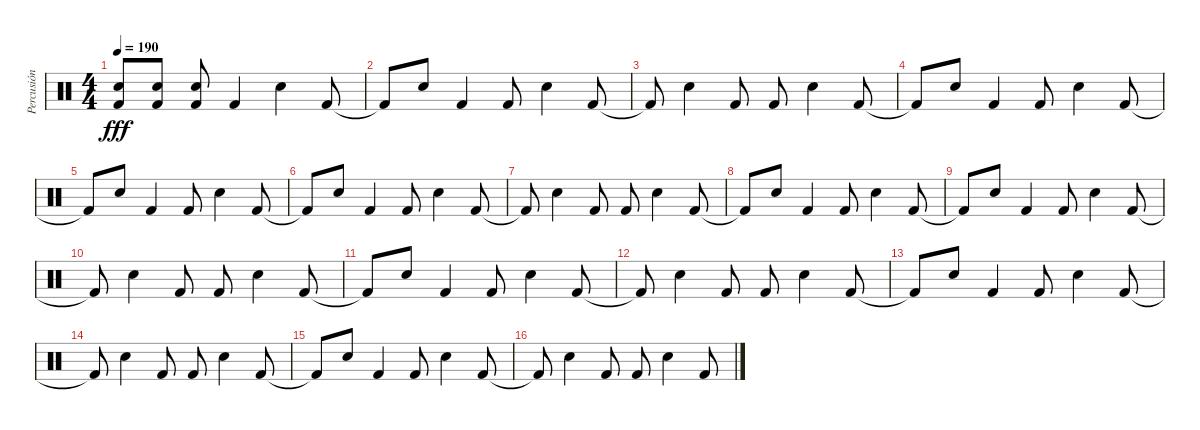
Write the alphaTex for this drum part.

\track ("Percusión" "Percusión") {instrument percussion}
\staff {score}
\articulation defaults
\ts (4 4)
\tempo 190
\clef neutral
\ks c
("Snare (hit) 2" "Kick (hit) 2").8{dy fff} ("Snare (hit) 2" "Kick (hit) 2").8 ("Snare (hit) 2" "Kick (hit) 2").8 "Kick (hit) 2".4 "Snare (hit) 2".4 "Kick (hit) 2".8 |
"Kick (hit) 2"{t}.8 "Snare (hit) 2".8 "Kick (hit) 2".4 "Kick (hit) 2".8 "Snare (hit) 2".4 "Kick (hit) 2".8 |
"Kick (hit) 2"{t}.8 "Snare (hit) 2".4 "Kick (hit) 2".8 "Kick (hit) 2".8 "Snare (hit) 2".4 "Kick (hit) 2".8 |
"Kick (hit) 2"{t}.8 "Snare (hit) 2".8 "Kick (hit) 2".4 "Kick (hit) 2".8 "Snare (hit) 2".4 "Kick (hit) 2".8 |
"Kick (hit) 2"{t}.8 "Snare (hit) 2".8 "Kick (hit) 2".4 "Kick (hit) 2".8 "Snare (hit) 2".4 "Kick (hit) 2".8 |
"Kick (hit) 2"{t}.8 "Snare (hit) 2".8 "Kick (hit) 2".4 "Kick (hit) 2".8 "Snare (hit) 2".4 "Kick (hit) 2".8 |
"Kick (hit) 2"{t}.8 "Snare (hit) 2".4 "Kick (hit) 2".8 "Kick (hit) 2".8 "Snare (hit) 2".4 "Kick (hit) 2".8 |
"Kick (hit) 2"{t}.8 "Snare (hit) 2".8 "Kick (hit) 2".4 "Kick (hit) 2".8 "Snare (hit) 2".4 "Kick (hit) 2".8 |
"Kick (hit) 2"{t}.8 "Snare (hit) 2".8 "Kick (hit) 2".4 "Kick (hit) 2".8 "Snare (hit) 2".4 "Kick (hit) 2".8 |
"Kick (hit) 2"{t}.8 "Snare (hit) 2".4 "Kick (hit) 2".8 "Kick (hit) 2".8 "Snare (hit) 2".4 "Kick (hit) 2".8 |
"Kick (hit) 2"{t}.8 "Snare (hit) 2".8 "Kick (hit) 2".4 "Kick (hit) 2".8 "Snare (hit) 2".4 "Kick (hit) 2".8 |
"Kick (hit) 2"{t}.8 "Snare (hit) 2".4 "Kick (hit) 2".8 "Kick (hit) 2".8 "Snare (hit) 2".4 "Kick (hit) 2".8 |
"Kick (hit) 2"{t}.8 "Snare (hit) 2".8 "Kick (hit) 2".4 "Kick (hit) 2".8 "Snare (hit) 2".4 "Kick (hit) 2".8 |
"Kick (hit) 2"{t}.8 "Snare (hit) 2".4 "Kick (hit) 2".8 "Kick (hit) 2".8 "Snare (hit) 2".4 "Kick (hit) 2".8 |
"Kick (hit) 2"{t}.8 "Snare (hit) 2".8 "Kick (hit) 2".4 "Kick (hit) 2".8 "Snare (hit) 2".4 "Kick (hit) 2".8 |
"Kick (hit) 2"{t}.8 "Snare (hit) 2".4 "Kick (hit) 2".8 "Kick (hit) 2".8 "Snare (hit) 2".4 "Kick (hit) 2".8
